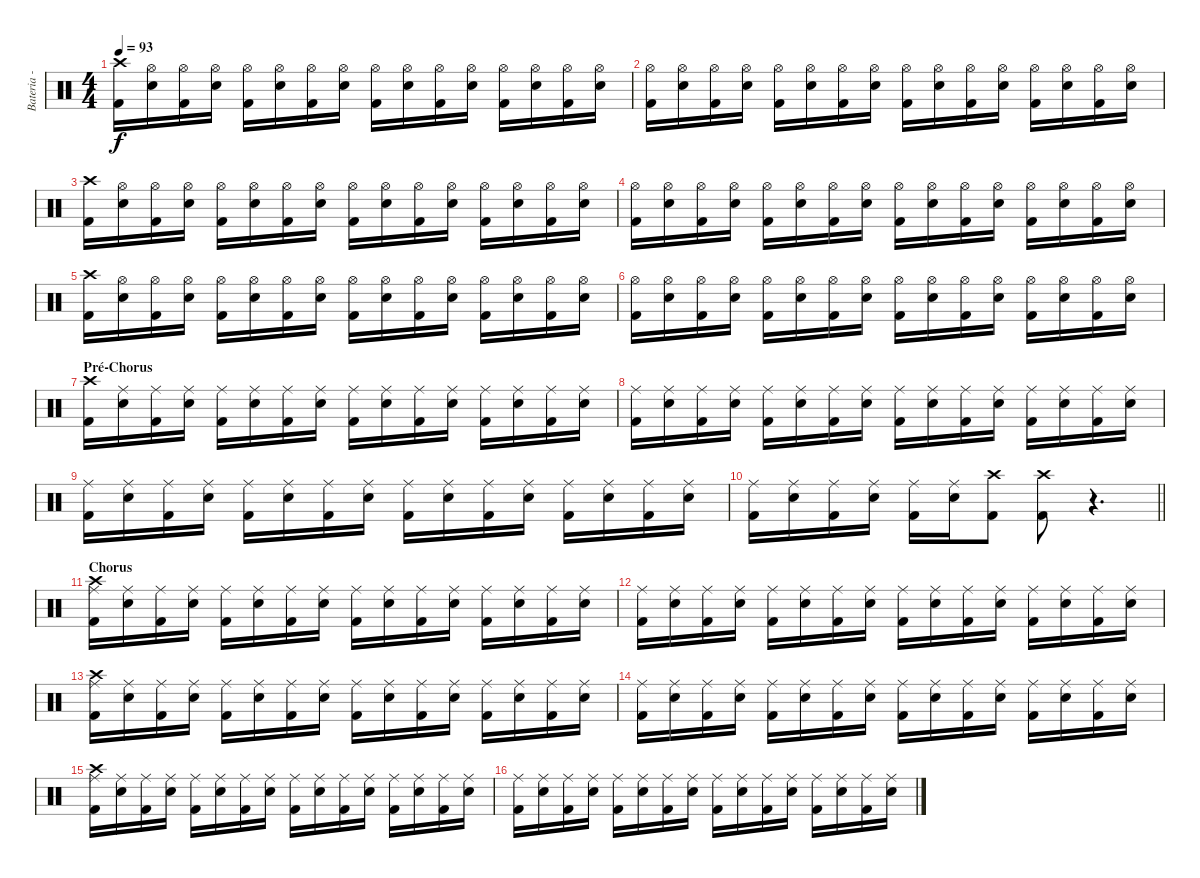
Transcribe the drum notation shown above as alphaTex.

\track ("Bateria - Larzon" "Bateria - ") {instrument percussion}
\staff {score}
\articulation defaults
\ts (4 4)
\tempo 93
\clef neutral
\ks c
("Kick (hit) 2" "Crash high (hit)").16{dy f} ("Electric Snare (hit)" "Hi-Hat (open)").16 ("Kick (hit) 2" "Hi-Hat (open)").16 ("Electric Snare (hit)" "Hi-Hat (open)").16 ("Kick (hit) 2" "Hi-Hat (open)").16 ("Electric Snare (hit)" "Hi-Hat (open)").16 ("Kick (hit) 2" "Hi-Hat (open)").16 ("Electric Snare (hit)" "Hi-Hat (open)").16 ("Kick (hit) 2" "Hi-Hat (open)").16 ("Electric Snare (hit)" "Hi-Hat (open)").16 ("Kick (hit) 2" "Hi-Hat (open)").16 ("Electric Snare (hit)" "Hi-Hat (open)").16 ("Kick (hit) 2" "Hi-Hat (open)").16 ("Electric Snare (hit)" "Hi-Hat (open)").16 ("Kick (hit) 2" "Hi-Hat (open)").16 ("Electric Snare (hit)" "Hi-Hat (open)").16 |
("Kick (hit) 2" "Hi-Hat (open)").16 ("Electric Snare (hit)" "Hi-Hat (open)").16 ("Kick (hit) 2" "Hi-Hat (open)").16 ("Electric Snare (hit)" "Hi-Hat (open)").16 ("Kick (hit) 2" "Hi-Hat (open)").16 ("Electric Snare (hit)" "Hi-Hat (open)").16 ("Kick (hit) 2" "Hi-Hat (open)").16 ("Electric Snare (hit)" "Hi-Hat (open)").16 ("Kick (hit) 2" "Hi-Hat (open)").16 ("Electric Snare (hit)" "Hi-Hat (open)").16 ("Kick (hit) 2" "Hi-Hat (open)").16 ("Electric Snare (hit)" "Hi-Hat (open)").16 ("Kick (hit) 2" "Hi-Hat (open)").16 ("Electric Snare (hit)" "Hi-Hat (open)").16 ("Kick (hit) 2" "Hi-Hat (open)").16 ("Electric Snare (hit)" "Hi-Hat (open)").16 |
("Kick (hit) 2" "Crash high (hit)").16 ("Electric Snare (hit)" "Hi-Hat (open)").16 ("Kick (hit) 2" "Hi-Hat (open)").16 ("Electric Snare (hit)" "Hi-Hat (open)").16 ("Kick (hit) 2" "Hi-Hat (open)").16 ("Electric Snare (hit)" "Hi-Hat (open)").16 ("Kick (hit) 2" "Hi-Hat (open)").16 ("Electric Snare (hit)" "Hi-Hat (open)").16 ("Kick (hit) 2" "Hi-Hat (open)").16 ("Electric Snare (hit)" "Hi-Hat (open)").16 ("Kick (hit) 2" "Hi-Hat (open)").16 ("Electric Snare (hit)" "Hi-Hat (open)").16 ("Kick (hit) 2" "Hi-Hat (open)").16 ("Electric Snare (hit)" "Hi-Hat (open)").16 ("Kick (hit) 2" "Hi-Hat (open)").16 ("Electric Snare (hit)" "Hi-Hat (open)").16 |
("Kick (hit) 2" "Hi-Hat (open)").16 ("Electric Snare (hit)" "Hi-Hat (open)").16 ("Kick (hit) 2" "Hi-Hat (open)").16 ("Electric Snare (hit)" "Hi-Hat (open)").16 ("Kick (hit) 2" "Hi-Hat (open)").16 ("Electric Snare (hit)" "Hi-Hat (open)").16 ("Kick (hit) 2" "Hi-Hat (open)").16 ("Electric Snare (hit)" "Hi-Hat (open)").16 ("Kick (hit) 2" "Hi-Hat (open)").16 ("Electric Snare (hit)" "Hi-Hat (open)").16 ("Kick (hit) 2" "Hi-Hat (open)").16 ("Electric Snare (hit)" "Hi-Hat (open)").16 ("Kick (hit) 2" "Hi-Hat (open)").16 ("Electric Snare (hit)" "Hi-Hat (open)").16 ("Kick (hit) 2" "Hi-Hat (open)").16 ("Electric Snare (hit)" "Hi-Hat (open)").16 |
("Kick (hit) 2" "Crash high (hit)").16 ("Electric Snare (hit)" "Hi-Hat (open)").16 ("Kick (hit) 2" "Hi-Hat (open)").16 ("Electric Snare (hit)" "Hi-Hat (open)").16 ("Kick (hit) 2" "Hi-Hat (open)").16 ("Electric Snare (hit)" "Hi-Hat (open)").16 ("Kick (hit) 2" "Hi-Hat (open)").16 ("Electric Snare (hit)" "Hi-Hat (open)").16 ("Kick (hit) 2" "Hi-Hat (open)").16 ("Electric Snare (hit)" "Hi-Hat (open)").16 ("Kick (hit) 2" "Hi-Hat (open)").16 ("Electric Snare (hit)" "Hi-Hat (open)").16 ("Kick (hit) 2" "Hi-Hat (open)").16 ("Electric Snare (hit)" "Hi-Hat (open)").16 ("Kick (hit) 2" "Hi-Hat (open)").16 ("Electric Snare (hit)" "Hi-Hat (open)").16 |
("Kick (hit) 2" "Hi-Hat (open)").16 ("Electric Snare (hit)" "Hi-Hat (open)").16 ("Kick (hit) 2" "Hi-Hat (open)").16 ("Electric Snare (hit)" "Hi-Hat (open)").16 ("Kick (hit) 2" "Hi-Hat (open)").16 ("Electric Snare (hit)" "Hi-Hat (open)").16 ("Kick (hit) 2" "Hi-Hat (open)").16 ("Electric Snare (hit)" "Hi-Hat (open)").16 ("Kick (hit) 2" "Hi-Hat (open)").16 ("Electric Snare (hit)" "Hi-Hat (open)").16 ("Kick (hit) 2" "Hi-Hat (open)").16 ("Electric Snare (hit)" "Hi-Hat (open)").16 ("Kick (hit) 2" "Hi-Hat (open)").16 ("Electric Snare (hit)" "Hi-Hat (open)").16 ("Kick (hit) 2" "Hi-Hat (open)").16 ("Electric Snare (hit)" "Hi-Hat (open)").16 |
\section ("" "Pré-Chorus")
("Kick (hit) 2" "Crash high (hit)").16 ("Electric Snare (hit)" "Ride (middle)").16 ("Kick (hit) 2" "Ride (middle)").16 ("Electric Snare (hit)" "Ride (middle)").16 ("Kick (hit) 2" "Ride (middle)").16 ("Electric Snare (hit)" "Ride (middle)").16 ("Kick (hit) 2" "Ride (middle)").16 ("Electric Snare (hit)" "Ride (middle)").16 ("Kick (hit) 2" "Ride (middle)").16 ("Electric Snare (hit)" "Ride (middle)").16 ("Kick (hit) 2" "Ride (middle)").16 ("Electric Snare (hit)" "Ride (middle)").16 ("Kick (hit) 2" "Ride (middle)").16 ("Electric Snare (hit)" "Ride (middle)").16 ("Kick (hit) 2" "Ride (middle)").16 ("Electric Snare (hit)" "Ride (middle)").16 |
("Kick (hit) 2" "Ride (middle)").16 ("Electric Snare (hit)" "Ride (middle)").16 ("Kick (hit) 2" "Ride (middle)").16 ("Electric Snare (hit)" "Ride (middle)").16 ("Kick (hit) 2" "Ride (middle)").16 ("Electric Snare (hit)" "Ride (middle)").16 ("Kick (hit) 2" "Ride (middle)").16 ("Electric Snare (hit)" "Ride (middle)").16 ("Kick (hit) 2" "Ride (middle)").16 ("Electric Snare (hit)" "Ride (middle)").16 ("Kick (hit) 2" "Ride (middle)").16 ("Electric Snare (hit)" "Ride (middle)").16 ("Kick (hit) 2" "Ride (middle)").16 ("Electric Snare (hit)" "Ride (middle)").16 ("Kick (hit) 2" "Ride (middle)").16 ("Electric Snare (hit)" "Ride (middle)").16 |
("Kick (hit) 2" "Ride (middle)").16 ("Electric Snare (hit)" "Ride (middle)").16 ("Kick (hit) 2" "Ride (middle)").16 ("Electric Snare (hit)" "Ride (middle)").16 ("Kick (hit) 2" "Ride (middle)").16 ("Electric Snare (hit)" "Ride (middle)").16 ("Kick (hit) 2" "Ride (middle)").16 ("Electric Snare (hit)" "Ride (middle)").16 ("Kick (hit) 2" "Ride (middle)").16 ("Electric Snare (hit)" "Ride (middle)").16 ("Kick (hit) 2" "Ride (middle)").16 ("Electric Snare (hit)" "Ride (middle)").16 ("Kick (hit) 2" "Ride (middle)").16 ("Electric Snare (hit)" "Ride (middle)").16 ("Kick (hit) 2" "Ride (middle)").16 ("Electric Snare (hit)" "Ride (middle)").16 |
\barLineRight lightlight
("Kick (hit) 2" "Ride (middle)").16 ("Electric Snare (hit)" "Ride (middle)").16 ("Kick (hit) 2" "Ride (middle)").16 ("Electric Snare (hit)" "Ride (middle)").16 ("Kick (hit) 2" "Ride (middle)").16 ("Electric Snare (hit)" "Ride (middle)").16 ("Kick (hit) 2" "Crash high (hit)").8 ("Kick (hit) 2" "Crash high (hit)").8 r.4{d} |
\section ("" "Chorus ")
("Kick (hit) 2" "Crash high (hit)" "Ride (middle)").16 ("Electric Snare (hit)" "Ride (middle)").16 ("Kick (hit) 2" "Ride (middle)").16 ("Electric Snare (hit)" "Ride (middle)").16 ("Kick (hit) 2" "Ride (middle)").16 ("Electric Snare (hit)" "Ride (middle)").16 ("Kick (hit) 2" "Ride (middle)").16 ("Electric Snare (hit)" "Ride (middle)").16 ("Kick (hit) 2" "Ride (middle)").16 ("Electric Snare (hit)" "Ride (middle)").16 ("Kick (hit) 2" "Ride (middle)").16 ("Electric Snare (hit)" "Ride (middle)").16 ("Kick (hit) 2" "Ride (middle)").16 ("Electric Snare (hit)" "Ride (middle)").16 ("Kick (hit) 2" "Ride (middle)").16 ("Electric Snare (hit)" "Ride (middle)").16 |
("Kick (hit) 2" "Ride (middle)").16 ("Electric Snare (hit)" "Ride (middle)").16 ("Kick (hit) 2" "Ride (middle)").16 ("Electric Snare (hit)" "Ride (middle)").16 ("Kick (hit) 2" "Ride (middle)").16 ("Electric Snare (hit)" "Ride (middle)").16 ("Kick (hit) 2" "Ride (middle)").16 ("Electric Snare (hit)" "Ride (middle)").16 ("Kick (hit) 2" "Ride (middle)").16 ("Electric Snare (hit)" "Ride (middle)").16 ("Kick (hit) 2" "Ride (middle)").16 ("Electric Snare (hit)" "Ride (middle)").16 ("Kick (hit) 2" "Ride (middle)").16 ("Electric Snare (hit)" "Ride (middle)").16 ("Kick (hit) 2" "Ride (middle)").16 ("Electric Snare (hit)" "Ride (middle)").16 |
("Kick (hit) 2" "Crash high (hit)" "Ride (middle)").16 ("Electric Snare (hit)" "Ride (middle)").16 ("Kick (hit) 2" "Ride (middle)").16 ("Electric Snare (hit)" "Ride (middle)").16 ("Kick (hit) 2" "Ride (middle)").16 ("Electric Snare (hit)" "Ride (middle)").16 ("Kick (hit) 2" "Ride (middle)").16 ("Electric Snare (hit)" "Ride (middle)").16 ("Kick (hit) 2" "Ride (middle)").16 ("Electric Snare (hit)" "Ride (middle)").16 ("Kick (hit) 2" "Ride (middle)").16 ("Electric Snare (hit)" "Ride (middle)").16 ("Kick (hit) 2" "Ride (middle)").16 ("Electric Snare (hit)" "Ride (middle)").16 ("Kick (hit) 2" "Ride (middle)").16 ("Electric Snare (hit)" "Ride (middle)").16 |
("Kick (hit) 2" "Ride (middle)").16 ("Electric Snare (hit)" "Ride (middle)").16 ("Kick (hit) 2" "Ride (middle)").16 ("Electric Snare (hit)" "Ride (middle)").16 ("Kick (hit) 2" "Ride (middle)").16 ("Electric Snare (hit)" "Ride (middle)").16 ("Kick (hit) 2" "Ride (middle)").16 ("Electric Snare (hit)" "Ride (middle)").16 ("Kick (hit) 2" "Ride (middle)").16 ("Electric Snare (hit)" "Ride (middle)").16 ("Kick (hit) 2" "Ride (middle)").16 ("Electric Snare (hit)" "Ride (middle)").16 ("Kick (hit) 2" "Ride (middle)").16 ("Electric Snare (hit)" "Ride (middle)").16 ("Kick (hit) 2" "Ride (middle)").16 ("Electric Snare (hit)" "Ride (middle)").16 |
("Kick (hit) 2" "Crash high (hit)" "Ride (middle)").16 ("Electric Snare (hit)" "Ride (middle)").16 ("Kick (hit) 2" "Ride (middle)").16 ("Electric Snare (hit)" "Ride (middle)").16 ("Kick (hit) 2" "Ride (middle)").16 ("Electric Snare (hit)" "Ride (middle)").16 ("Kick (hit) 2" "Ride (middle)").16 ("Electric Snare (hit)" "Ride (middle)").16 ("Kick (hit) 2" "Ride (middle)").16 ("Electric Snare (hit)" "Ride (middle)").16 ("Kick (hit) 2" "Ride (middle)").16 ("Electric Snare (hit)" "Ride (middle)").16 ("Kick (hit) 2" "Ride (middle)").16 ("Electric Snare (hit)" "Ride (middle)").16 ("Kick (hit) 2" "Ride (middle)").16 ("Electric Snare (hit)" "Ride (middle)").16 |
("Kick (hit) 2" "Ride (middle)").16 ("Electric Snare (hit)" "Ride (middle)").16 ("Kick (hit) 2" "Ride (middle)").16 ("Electric Snare (hit)" "Ride (middle)").16 ("Kick (hit) 2" "Ride (middle)").16 ("Electric Snare (hit)" "Ride (middle)").16 ("Kick (hit) 2" "Ride (middle)").16 ("Electric Snare (hit)" "Ride (middle)").16 ("Kick (hit) 2" "Ride (middle)").16 ("Electric Snare (hit)" "Ride (middle)").16 ("Kick (hit) 2" "Ride (middle)").16 ("Electric Snare (hit)" "Ride (middle)").16 ("Kick (hit) 2" "Ride (middle)").16 ("Electric Snare (hit)" "Ride (middle)").16 ("Kick (hit) 2" "Ride (middle)").16 ("Electric Snare (hit)" "Ride (middle)").16
